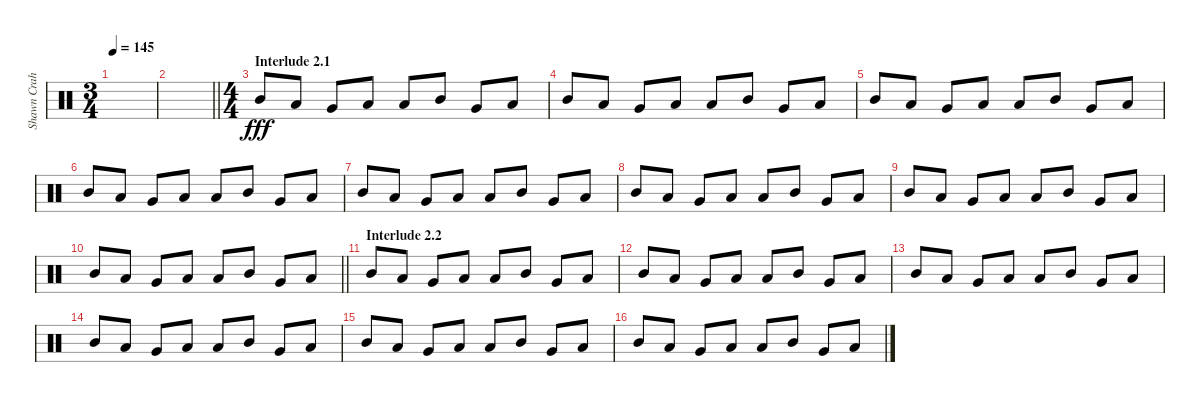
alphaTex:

\track ("Shawn Crahan" "Shawn Crah") {instrument percussion}
\staff {score}
\articulation defaults
\ts (3 4)
\tempo 145
\clef neutral
\ks c
|
\barLineRight lightlight
|
\ts (4 4)
\section ("" "Interlude 2.1")
"Mid Tom (hit)".8{dy fff} "Low Tom (hit)".8 "Very Low Tom (hit)".8 "Low Floor Tom (hit)".8 "Low Tom (hit)".8 "Mid Tom (hit)".8 "Very Low Tom (hit)".8 "Low Floor Tom (hit)".8 |
"Mid Tom (hit)".8 "Low Tom (hit)".8 "Very Low Tom (hit)".8 "Low Floor Tom (hit)".8 "Low Tom (hit)".8 "Mid Tom (hit)".8 "Very Low Tom (hit)".8 "Low Floor Tom (hit)".8 |
"Mid Tom (hit)".8 "Low Tom (hit)".8 "Very Low Tom (hit)".8 "Low Floor Tom (hit)".8 "Low Tom (hit)".8 "Mid Tom (hit)".8 "Very Low Tom (hit)".8 "Low Floor Tom (hit)".8 |
"Mid Tom (hit)".8 "Low Tom (hit)".8 "Very Low Tom (hit)".8 "Low Floor Tom (hit)".8 "Low Tom (hit)".8 "Mid Tom (hit)".8 "Very Low Tom (hit)".8 "Low Floor Tom (hit)".8 |
"Mid Tom (hit)".8 "Low Tom (hit)".8 "Very Low Tom (hit)".8 "Low Floor Tom (hit)".8 "Low Tom (hit)".8 "Mid Tom (hit)".8 "Very Low Tom (hit)".8 "Low Floor Tom (hit)".8 |
"Mid Tom (hit)".8 "Low Tom (hit)".8 "Very Low Tom (hit)".8 "Low Floor Tom (hit)".8 "Low Tom (hit)".8 "Mid Tom (hit)".8 "Very Low Tom (hit)".8 "Low Floor Tom (hit)".8 |
"Mid Tom (hit)".8 "Low Tom (hit)".8 "Very Low Tom (hit)".8 "Low Floor Tom (hit)".8 "Low Tom (hit)".8 "Mid Tom (hit)".8 "Very Low Tom (hit)".8 "Low Floor Tom (hit)".8 |
\barLineRight lightlight "Mid Tom (hit)".8 "Low Tom (hit)".8 "Very Low Tom (hit)".8 "Low Floor Tom (hit)".8 "Low Tom (hit)".8 "Mid Tom (hit)".8 "Very Low Tom (hit)".8 "Low Floor Tom (hit)".8
|
\section ("" "Interlude 2.2")
"Mid Tom (hit)".8 "Low Tom (hit)".8 "Very Low Tom (hit)".8 "Low Floor Tom (hit)".8 "Low Tom (hit)".8 "Mid Tom (hit)".8 "Very Low Tom (hit)".8 "Low Floor Tom (hit)".8 |
"Mid Tom (hit)".8 "Low Tom (hit)".8 "Very Low Tom (hit)".8 "Low Floor Tom (hit)".8 "Low Tom (hit)".8 "Mid Tom (hit)".8 "Very Low Tom (hit)".8 "Low Floor Tom (hit)".8 |
"Mid Tom (hit)".8 "Low Tom (hit)".8 "Very Low Tom (hit)".8 "Low Floor Tom (hit)".8 "Low Tom (hit)".8 "Mid Tom (hit)".8 "Very Low Tom (hit)".8 "Low Floor Tom (hit)".8 |
"Mid Tom (hit)".8 "Low Tom (hit)".8 "Very Low Tom (hit)".8 "Low Floor Tom (hit)".8 "Low Tom (hit)".8 "Mid Tom (hit)".8 "Very Low Tom (hit)".8 "Low Floor Tom (hit)".8 |
"Mid Tom (hit)".8 "Low Tom (hit)".8 "Very Low Tom (hit)".8 "Low Floor Tom (hit)".8 "Low Tom (hit)".8 "Mid Tom (hit)".8 "Very Low Tom (hit)".8 "Low Floor Tom (hit)".8 |
"Mid Tom (hit)".8 "Low Tom (hit)".8 "Very Low Tom (hit)".8 "Low Floor Tom (hit)".8 "Low Tom (hit)".8 "Mid Tom (hit)".8 "Very Low Tom (hit)".8 "Low Floor Tom (hit)".8
